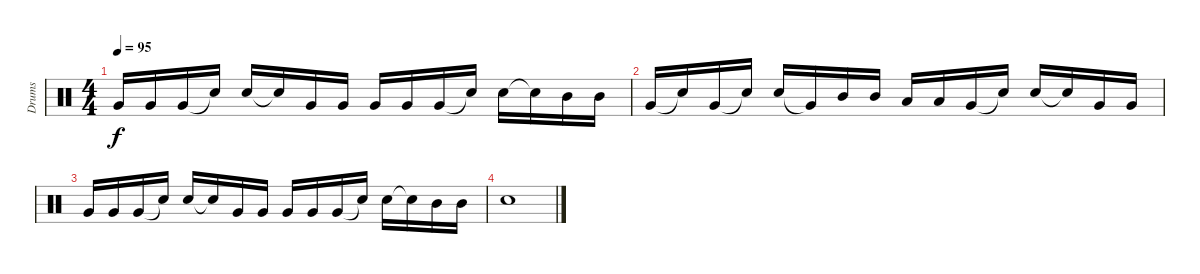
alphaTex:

\track ("Drums" "Drums") {instrument percussion}
\staff {score}
\articulation defaults
\ts (4 4)
\tempo 95
\clef neutral
\ks c "Very Low Tom (hit)".16{dy f} "Very Low Tom (hit)".16 "Very Low Tom (hit)".16 "Snare (hit)"{t}.16 "Snare (hit) 2".16 "Snare (hit)"{t}.16 "Very Low Tom (hit)".16 "Very Low Tom (hit)".16 "Very Low Tom (hit)".16 "Very Low Tom (hit)".16 "Very Low Tom (hit)".16 "Snare (hit)"{t}.16 "Snare (hit) 2".16 "Snare (hit)"{t}.16 "Mid Tom (hit)".16 "Mid Tom (hit)".16
|
"Very Low Tom (hit)".16 "Snare (hit)"{t}.16 "Very Low Tom (hit)".16 "Snare (hit)"{t}.16 "Snare (hit) 2".16 "Very Low Tom (hit)"{t}.16 "Mid Tom (hit)".16 "Mid Tom (hit)".16 "Low Tom (hit)".16 "Low Tom (hit)".16 "Very Low Tom (hit)".16 "Snare (hit)"{t}.16 "Snare (hit) 2".16 "Snare (hit)"{t}.16 "Very Low Tom (hit)".16 "Very Low Tom (hit)".16 |
"Very Low Tom (hit)".16 "Very Low Tom (hit)".16 "Very Low Tom (hit)".16 "Snare (hit)"{t}.16 "Snare (hit) 2".16 "Snare (hit)"{t}.16 "Very Low Tom (hit)".16 "Very Low Tom (hit)".16 "Very Low Tom (hit)".16 "Very Low Tom (hit)".16 "Very Low Tom (hit)".16 "Snare (hit)"{t}.16 "Snare (hit) 2".16 "Snare (hit)"{t}.16 "Mid Tom (hit)".16 "Mid Tom (hit)".16 |
"Snare (hit) 2".1
